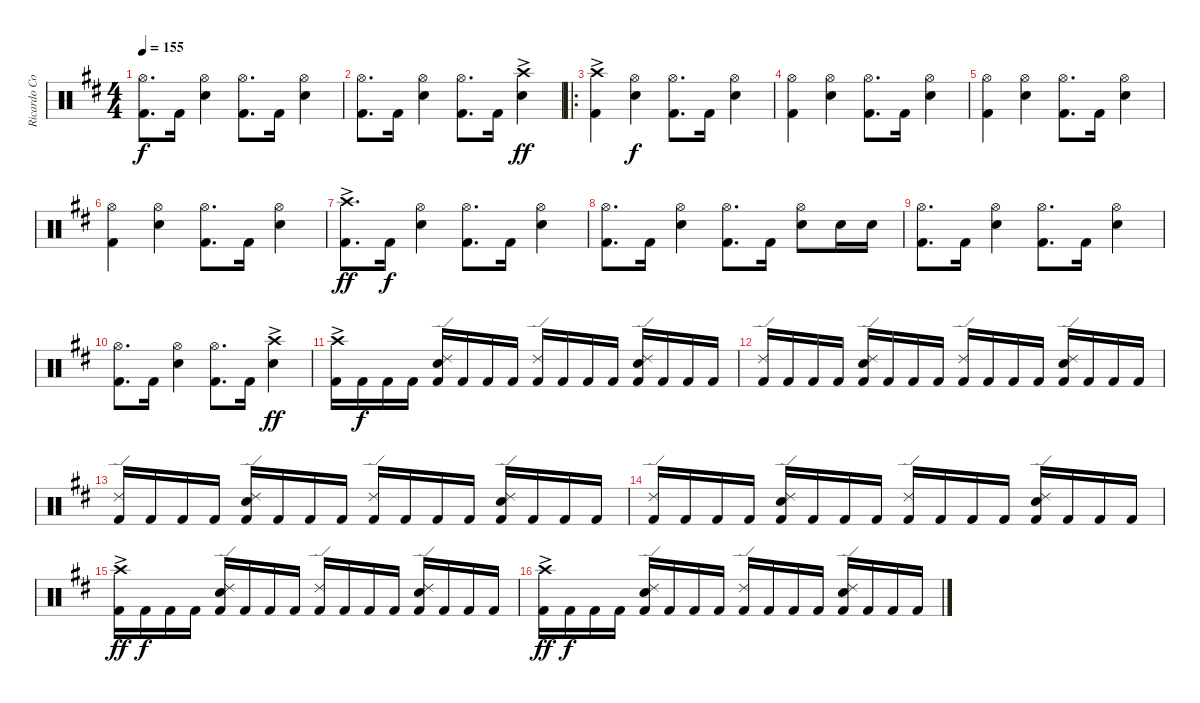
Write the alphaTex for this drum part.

\track ("Ricardo Confessori" "Ricardo Co") {instrument percussion}
\staff {score}
\articulation defaults
\ts (4 4)
\tempo 155
\clef neutral
\ks d
("Hi-Hat (open)" "Kick (hit) 2").8{d dy f} "Kick (hit) 2".16 ("Hi-Hat (open)" "Electric Snare (hit)").4 ("Hi-Hat (open)" "Kick (hit) 2").8{d} "Kick (hit) 2".16 ("Hi-Hat (open)" "Electric Snare (hit)").4 |
("Hi-Hat (open)" "Kick (hit) 2").8{d} "Kick (hit) 2".16 ("Hi-Hat (open)" "Electric Snare (hit)").4 ("Hi-Hat (open)" "Kick (hit) 2").8{d} "Kick (hit) 2".16 ("Crash high (hit)"{ac} "Electric Snare (hit)"{ac}).4{dy ff} |
\ro
("Crash high (hit)"{ac} "Kick (hit) 2"{ac}).4 ("Hi-Hat (open)" "Electric Snare (hit)").4{dy f} ("Hi-Hat (open)" "Kick (hit) 2").8{d} "Kick (hit) 2".16 ("Hi-Hat (open)" "Electric Snare (hit)").4 |
("Hi-Hat (open)" "Kick (hit) 2").4 ("Hi-Hat (open)" "Electric Snare (hit)").4 ("Hi-Hat (open)" "Kick (hit) 2").8{d} "Kick (hit) 2".16 ("Hi-Hat (open)" "Electric Snare (hit)").4 |
("Hi-Hat (open)" "Kick (hit) 2").4 ("Hi-Hat (open)" "Electric Snare (hit)").4 ("Hi-Hat (open)" "Kick (hit) 2").8{d} "Kick (hit) 2".16 ("Hi-Hat (open)" "Electric Snare (hit)").4 |
("Hi-Hat (open)" "Kick (hit) 2").4 ("Hi-Hat (open)" "Electric Snare (hit)").4 ("Hi-Hat (open)" "Kick (hit) 2").8{d} "Kick (hit) 2".16 ("Hi-Hat (open)" "Electric Snare (hit)").4 |
("Crash high (hit)"{ac} "Kick (hit) 2"{ac}).8{d dy ff} "Kick (hit) 2".16{dy f} ("Hi-Hat (open)" "Electric Snare (hit)").4 ("Hi-Hat (open)" "Kick (hit) 2").8{d} "Kick (hit) 2".16 ("Hi-Hat (open)" "Electric Snare (hit)").4 |
("Hi-Hat (open)" "Kick (hit) 2").8{d} "Kick (hit) 2".16 ("Hi-Hat (open)" "Electric Snare (hit)").4 ("Hi-Hat (open)" "Kick (hit) 2").8{d} "Kick (hit) 2".16 ("Hi-Hat (open)" "Electric Snare (hit)").8 "Electric Snare (hit)".16 "Electric Snare (hit)".16 |
("Hi-Hat (open)" "Kick (hit) 2").8{d} "Kick (hit) 2".16 ("Hi-Hat (open)" "Electric Snare (hit)").4 ("Hi-Hat (open)" "Kick (hit) 2").8{d} "Kick (hit) 2".16 ("Hi-Hat (open)" "Electric Snare (hit)").4 |
("Hi-Hat (open)" "Kick (hit) 2").8{d} "Kick (hit) 2".16 ("Hi-Hat (open)" "Electric Snare (hit)").4 ("Hi-Hat (open)" "Kick (hit) 2").8{d} "Kick (hit) 2".16 ("Crash high (hit)"{ac} "Electric Snare (hit)"{ac}).4{dy ff} |
("Crash high (hit)"{ac} "Kick (hit) 2"{ac}).16 "Kick (hit) 2".16{dy f} "Kick (hit) 2".16 "Kick (hit) 2".16 ("Kick (hit) 2" "Electric Snare (hit)" "Ride (edge) 2").16 "Kick (hit) 2".16 "Kick (hit) 2".16 "Kick (hit) 2".16 ("Kick (hit) 2" "Ride (edge) 2").16 "Kick (hit) 2".16 "Kick (hit) 2".16 "Kick (hit) 2".16 ("Kick (hit) 2" "Electric Snare (hit)" "Ride (edge) 2").16 "Kick (hit) 2".16 "Kick (hit) 2".16 "Kick (hit) 2".16 |
("Ride (edge) 2" "Kick (hit) 2").16 "Kick (hit) 2".16 "Kick (hit) 2".16 "Kick (hit) 2".16 ("Kick (hit) 2" "Electric Snare (hit)" "Ride (edge) 2").16 "Kick (hit) 2".16 "Kick (hit) 2".16 "Kick (hit) 2".16 ("Kick (hit) 2" "Ride (edge) 2").16 "Kick (hit) 2".16 "Kick (hit) 2".16 "Kick (hit) 2".16 ("Kick (hit) 2" "Electric Snare (hit)" "Ride (edge) 2").16 "Kick (hit) 2".16 "Kick (hit) 2".16 "Kick (hit) 2".16 |
("Ride (edge) 2" "Kick (hit) 2").16 "Kick (hit) 2".16 "Kick (hit) 2".16 "Kick (hit) 2".16 ("Kick (hit) 2" "Electric Snare (hit)" "Ride (edge) 2").16 "Kick (hit) 2".16 "Kick (hit) 2".16 "Kick (hit) 2".16 ("Kick (hit) 2" "Ride (edge) 2").16 "Kick (hit) 2".16 "Kick (hit) 2".16 "Kick (hit) 2".16 ("Kick (hit) 2" "Electric Snare (hit)" "Ride (edge) 2").16 "Kick (hit) 2".16 "Kick (hit) 2".16 "Kick (hit) 2".16 |
("Ride (edge) 2" "Kick (hit) 2").16 "Kick (hit) 2".16 "Kick (hit) 2".16 "Kick (hit) 2".16 ("Kick (hit) 2" "Electric Snare (hit)" "Ride (edge) 2").16 "Kick (hit) 2".16 "Kick (hit) 2".16 "Kick (hit) 2".16 ("Kick (hit) 2" "Ride (edge) 2").16 "Kick (hit) 2".16 "Kick (hit) 2".16 "Kick (hit) 2".16 ("Kick (hit) 2" "Electric Snare (hit)" "Ride (edge) 2").16 "Kick (hit) 2".16 "Kick (hit) 2".16 "Kick (hit) 2".16 |
("Crash high (hit)"{ac} "Kick (hit) 2"{ac}).16{dy ff} "Kick (hit) 2".16{dy f} "Kick (hit) 2".16 "Kick (hit) 2".16 ("Kick (hit) 2" "Electric Snare (hit)" "Ride (edge) 2").16 "Kick (hit) 2".16 "Kick (hit) 2".16 "Kick (hit) 2".16 ("Kick (hit) 2" "Ride (edge) 2").16 "Kick (hit) 2".16 "Kick (hit) 2".16 "Kick (hit) 2".16 ("Kick (hit) 2" "Electric Snare (hit)" "Ride (edge) 2").16 "Kick (hit) 2".16 "Kick (hit) 2".16 "Kick (hit) 2".16 |
("Crash high (hit)"{ac} "Kick (hit) 2"{ac}).16{dy ff} "Kick (hit) 2".16{dy f} "Kick (hit) 2".16 "Kick (hit) 2".16 ("Kick (hit) 2" "Electric Snare (hit)" "Ride (edge) 2").16 "Kick (hit) 2".16 "Kick (hit) 2".16 "Kick (hit) 2".16 ("Kick (hit) 2" "Ride (edge) 2").16 "Kick (hit) 2".16 "Kick (hit) 2".16 "Kick (hit) 2".16 ("Kick (hit) 2" "Electric Snare (hit)" "Ride (edge) 2").16 "Kick (hit) 2".16 "Kick (hit) 2".16 "Kick (hit) 2".16
